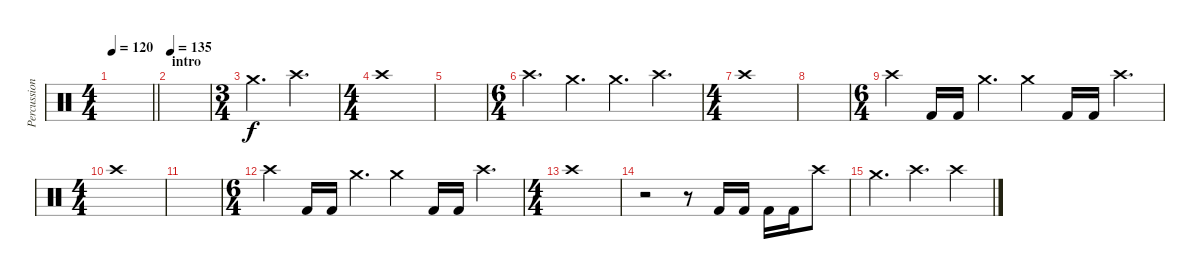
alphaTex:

\track ("Percussion" "Percussion") {instrument percussion}
\staff {score}
\articulation defaults
\ts (4 4)
\tempo 120
\clef neutral
\barLineRight lightlight
\ks c
|
\section ("" "intro")
\tempo 135
|
\ts (3 4)
"Crash medium (hit)".4{d} "Crash high (hit)".4{d} |
\ts (4 4)
"Crash high (hit)".1 |
|
\ts (6 4)
"Crash high (hit)".4{d} "Crash medium (hit)".4{d} "Crash medium (hit)".4{d} "Crash high (hit)".4{d} |
\ts (4 4)
"Crash high (hit)".1 |
|
\ts (6 4)
"Crash high (hit)".4 "Kick (hit) 2".16 "Kick (hit) 2".16 "Crash medium (hit)".4{d} "Crash medium (hit)".4 "Kick (hit) 2".16 "Kick (hit) 2".16 "Crash high (hit)".4{d} |
\ts (4 4)
"Crash high (hit)".1 |
|
\ts (6 4)
"Crash high (hit)".4 "Kick (hit) 2".16 "Kick (hit) 2".16 "Crash medium (hit)".4{d} "Crash medium (hit)".4 "Kick (hit) 2".16 "Kick (hit) 2".16 "Crash high (hit)".4{d} |
\ts (4 4)
"Crash high (hit)".1 |
r.2 r.8 "Kick (hit) 2".16 "Kick (hit) 2".16 "Kick (hit) 2".16 "Kick (hit) 2".16 "Crash high (hit)".8 |
"Crash medium (hit)".4{d} "Crash high (hit)".4{d} "Crash high (hit)".4
